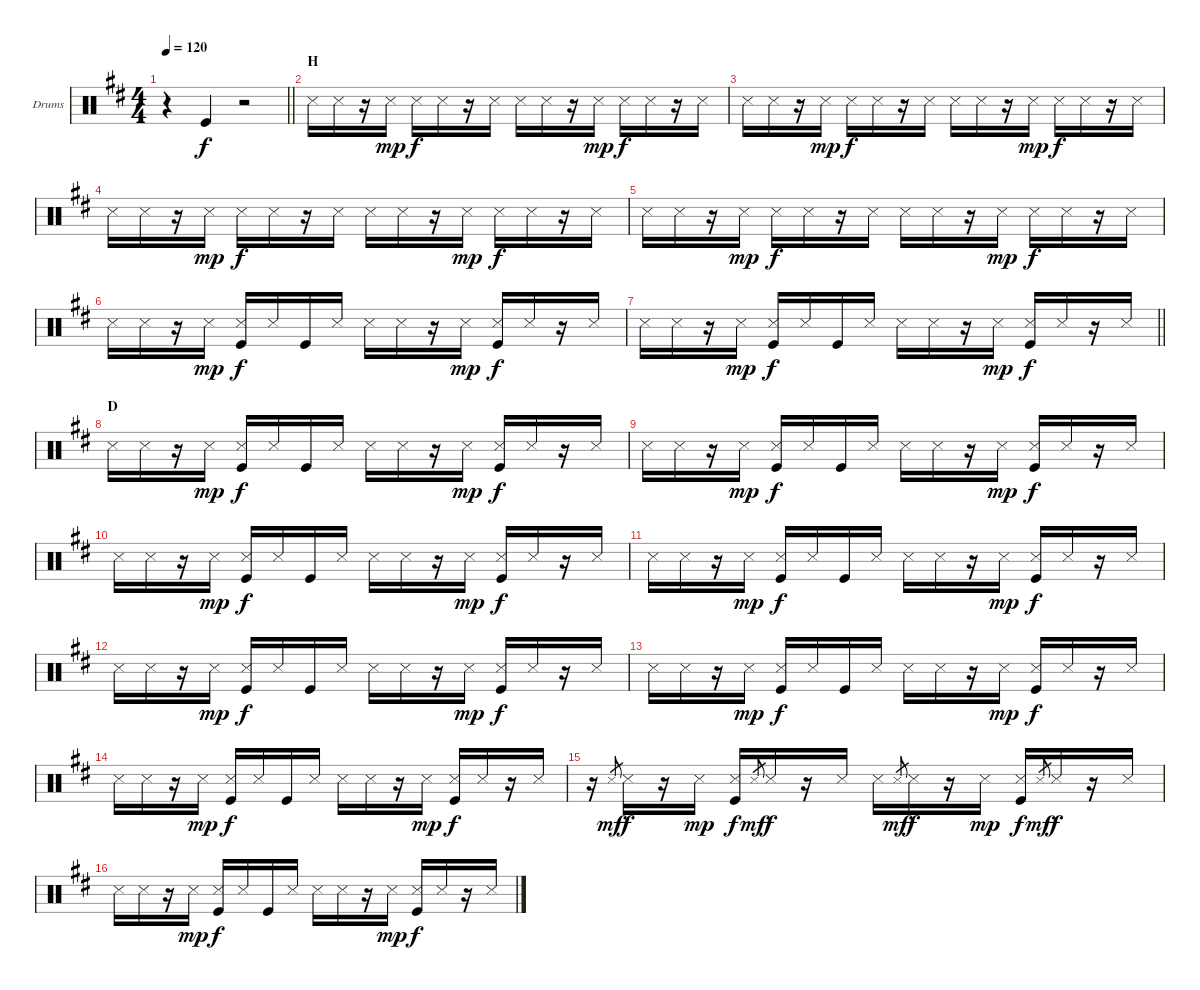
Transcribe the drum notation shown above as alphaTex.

\bracketExtendMode groupsimilarinstruments
\firstSystemTrackNameOrientation horizontal
\otherSystemsTrackNameOrientation horizontal
\track ("Drumkit" "Drums") {instrument percussion}
\staff {score}
\articulation defaults
\ts (4 4)
\tempo 120
\clef neutral
\barLineRight lightlight
\ks d
r.4{dy f} "Kick (hit)".4 r.2 |
\section ("" "H")
"Snare (side stick) 3".16 "Snare (side stick) 3".16 r.16 "Snare (side stick) 3".16{dy mp} "Snare (side stick) 3".16{dy f} "Snare (side stick) 3".16 r.16 "Snare (side stick) 3".16 "Snare (side stick) 3".16 "Snare (side stick) 3".16 r.16 "Snare (side stick) 3".16{dy mp} "Snare (side stick) 3".16{dy f} "Snare (side stick) 3".16 r.16 "Snare (side stick) 3".16 |
"Snare (side stick) 3".16 "Snare (side stick) 3".16 r.16 "Snare (side stick) 3".16{dy mp} "Snare (side stick) 3".16{dy f} "Snare (side stick) 3".16 r.16 "Snare (side stick) 3".16 "Snare (side stick) 3".16 "Snare (side stick) 3".16 r.16 "Snare (side stick) 3".16{dy mp} "Snare (side stick) 3".16{dy f} "Snare (side stick) 3".16 r.16 "Snare (side stick) 3".16 |
"Snare (side stick) 3".16 "Snare (side stick) 3".16 r.16 "Snare (side stick) 3".16{dy mp} "Snare (side stick) 3".16{dy f} "Snare (side stick) 3".16 r.16 "Snare (side stick) 3".16 "Snare (side stick) 3".16 "Snare (side stick) 3".16 r.16 "Snare (side stick) 3".16{dy mp} "Snare (side stick) 3".16{dy f} "Snare (side stick) 3".16 r.16 "Snare (side stick) 3".16 |
"Snare (side stick) 3".16 "Snare (side stick) 3".16 r.16 "Snare (side stick) 3".16{dy mp} "Snare (side stick) 3".16{dy f} "Snare (side stick) 3".16 r.16 "Snare (side stick) 3".16 "Snare (side stick) 3".16 "Snare (side stick) 3".16 r.16 "Snare (side stick) 3".16{dy mp} "Snare (side stick) 3".16{dy f} "Snare (side stick) 3".16 r.16 "Snare (side stick) 3".16 |
"Snare (side stick) 3".16 "Snare (side stick) 3".16 r.16 "Snare (side stick) 3".16{dy mp} ("Snare (side stick) 3" "Kick (hit)").16{dy f} "Snare (side stick) 3".16 "Kick (hit)".16 "Snare (side stick) 3".16 "Snare (side stick) 3".16 "Snare (side stick) 3".16 r.16 "Snare (side stick) 3".16{dy mp} ("Snare (side stick) 3" "Kick (hit)").16{dy f} "Snare (side stick) 3".16 r.16 "Snare (side stick) 3".16 |
\barLineRight lightlight "Snare (side stick) 3".16 "Snare (side stick) 3".16
r.16 "Snare (side stick) 3".16{dy mp} ("Snare (side stick) 3" "Kick (hit)").16{dy f} "Snare (side stick) 3".16 "Kick (hit)".16 "Snare (side stick) 3".16 "Snare (side stick) 3".16 "Snare (side stick) 3".16 r.16 "Snare (side stick) 3".16{dy mp} ("Snare (side stick) 3" "Kick (hit)").16{dy f} "Snare (side stick) 3".16 r.16 "Snare (side stick) 3".16 |
\section ("" "D")
"Snare (side stick) 3".16 "Snare (side stick) 3".16 r.16 "Snare (side stick) 3".16{dy mp} ("Snare (side stick) 3" "Kick (hit)").16{dy f} "Snare (side stick) 3".16 "Kick (hit)".16 "Snare (side stick) 3".16 "Snare (side stick) 3".16 "Snare (side stick) 3".16 r.16 "Snare (side stick) 3".16{dy mp} ("Snare (side stick) 3" "Kick (hit)").16{dy f} "Snare (side stick) 3".16 r.16 "Snare (side stick) 3".16 |
"Snare (side stick) 3".16 "Snare (side stick) 3".16 r.16 "Snare (side stick) 3".16{dy mp} ("Snare (side stick) 3" "Kick (hit)").16{dy f} "Snare (side stick) 3".16 "Kick (hit)".16 "Snare (side stick) 3".16 "Snare (side stick) 3".16 "Snare (side stick) 3".16 r.16 "Snare (side stick) 3".16{dy mp} ("Snare (side stick) 3" "Kick (hit)").16{dy f} "Snare (side stick) 3".16 r.16 "Snare (side stick) 3".16 |
"Snare (side stick) 3".16 "Snare (side stick) 3".16 r.16 "Snare (side stick) 3".16{dy mp} ("Snare (side stick) 3" "Kick (hit)").16{dy f} "Snare (side stick) 3".16 "Kick (hit)".16 "Snare (side stick) 3".16 "Snare (side stick) 3".16 "Snare (side stick) 3".16 r.16 "Snare (side stick) 3".16{dy mp} ("Snare (side stick) 3" "Kick (hit)").16{dy f} "Snare (side stick) 3".16 r.16 "Snare (side stick) 3".16 |
"Snare (side stick) 3".16 "Snare (side stick) 3".16 r.16 "Snare (side stick) 3".16{dy mp} ("Snare (side stick) 3" "Kick (hit)").16{dy f} "Snare (side stick) 3".16 "Kick (hit)".16 "Snare (side stick) 3".16 "Snare (side stick) 3".16 "Snare (side stick) 3".16 r.16 "Snare (side stick) 3".16{dy mp} ("Snare (side stick) 3" "Kick (hit)").16{dy f} "Snare (side stick) 3".16 r.16 "Snare (side stick) 3".16 |
"Snare (side stick) 3".16 "Snare (side stick) 3".16 r.16 "Snare (side stick) 3".16{dy mp} ("Snare (side stick) 3" "Kick (hit)").16{dy f} "Snare (side stick) 3".16 "Kick (hit)".16 "Snare (side stick) 3".16 "Snare (side stick) 3".16 "Snare (side stick) 3".16 r.16 "Snare (side stick) 3".16{dy mp} ("Snare (side stick) 3" "Kick (hit)").16{dy f} "Snare (side stick) 3".16 r.16 "Snare (side stick) 3".16 |
"Snare (side stick) 3".16 "Snare (side stick) 3".16 r.16 "Snare (side stick) 3".16{dy mp} ("Snare (side stick) 3" "Kick (hit)").16{dy f} "Snare (side stick) 3".16 "Kick (hit)".16 "Snare (side stick) 3".16 "Snare (side stick) 3".16 "Snare (side stick) 3".16 r.16 "Snare (side stick) 3".16{dy mp} ("Snare (side stick) 3" "Kick (hit)").16{dy f} "Snare (side stick) 3".16 r.16 "Snare (side stick) 3".16 |
"Snare (side stick) 3".16 "Snare (side stick) 3".16 r.16 "Snare (side stick) 3".16{dy mp} ("Snare (side stick) 3" "Kick (hit)").16{dy f} "Snare (side stick) 3".16 "Kick (hit)".16 "Snare (side stick) 3".16 "Snare (side stick) 3".16 "Snare (side stick) 3".16 r.16 "Snare (side stick) 3".16{dy mp} ("Snare (side stick) 3" "Kick (hit)").16{dy f} "Snare (side stick) 3".16 r.16 "Snare (side stick) 3".16 |
r.16 "Snare (side stick) 3".8{gr dy mf} "Snare (side stick) 3".16{dy f} r.16 "Snare (side stick) 3".16{dy mp} ("Snare (side stick) 3" "Kick (hit)").16{dy f} "Snare (side stick) 3".8{gr dy mf} "Snare (side stick) 3".16{dy f} r.16 "Snare (side stick) 3".16 "Snare (side stick) 3".16 "Snare (side stick) 3".8{gr dy mf} "Snare (side stick) 3".16{dy f} r.16 "Snare (side stick) 3".16{dy mp} ("Snare (side stick) 3" "Kick (hit)").16{dy f} "Snare (side stick) 3".8{gr dy mf} "Snare (side stick) 3".16{dy f} r.16 "Snare (side stick) 3".16 |
"Snare (side stick) 3".16 "Snare (side stick) 3".16 r.16 "Snare (side stick) 3".16{dy mp} ("Snare (side stick) 3" "Kick (hit)").16{dy f} "Snare (side stick) 3".16 "Kick (hit)".16 "Snare (side stick) 3".16 "Snare (side stick) 3".16 "Snare (side stick) 3".16 r.16 "Snare (side stick) 3".16{dy mp} ("Snare (side stick) 3" "Kick (hit)").16{dy f} "Snare (side stick) 3".16 r.16 "Snare (side stick) 3".16
